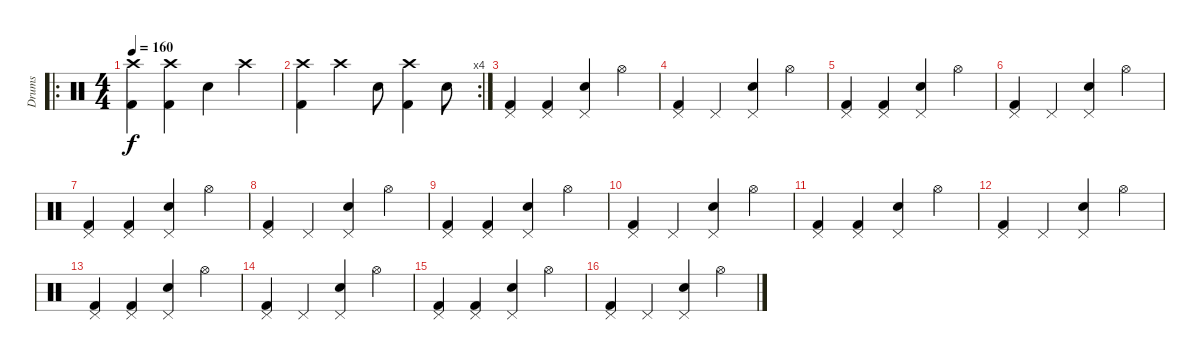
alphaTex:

\track ("Drums" "Drums") {instrument percussion}
\staff {score}
\articulation defaults
\ro
\ts (4 4)
\tempo 160
\clef neutral
\ks c
("Crash high (hit)" "Kick (hit) 2").4{dy f} ("Crash high (hit)" "Kick (hit) 2").4 "Electric Snare (hit)".4 "Crash high (hit)".4 |
\rc 4
("Crash high (hit)" "Kick (hit) 2").4 "Crash high (hit)".4 "Electric Snare (hit)".8 ("Crash high (hit)" "Kick (hit) 2").4 "Electric Snare (hit)".8 |
("Pedal Hi-Hat (hit)" "Kick (hit) 2").4 ("Pedal Hi-Hat (hit)" "Kick (hit) 2").4 ("Pedal Hi-Hat (hit)" "Electric Snare (hit)").4 "Hi-Hat (open)".4 |
("Pedal Hi-Hat (hit)" "Kick (hit) 2").4 "Pedal Hi-Hat (hit)".4 ("Pedal Hi-Hat (hit)" "Electric Snare (hit)").4 "Hi-Hat (open)".4 |
("Pedal Hi-Hat (hit)" "Kick (hit) 2").4 ("Pedal Hi-Hat (hit)" "Kick (hit) 2").4 ("Pedal Hi-Hat (hit)" "Electric Snare (hit)").4 "Hi-Hat (open)".4 |
("Pedal Hi-Hat (hit)" "Kick (hit) 2").4 "Pedal Hi-Hat (hit)".4 ("Pedal Hi-Hat (hit)" "Electric Snare (hit)").4 "Hi-Hat (open)".4 |
("Pedal Hi-Hat (hit)" "Kick (hit) 2").4 ("Pedal Hi-Hat (hit)" "Kick (hit) 2").4 ("Pedal Hi-Hat (hit)" "Electric Snare (hit)").4 "Hi-Hat (open)".4 |
("Pedal Hi-Hat (hit)" "Kick (hit) 2").4 "Pedal Hi-Hat (hit)".4 ("Pedal Hi-Hat (hit)" "Electric Snare (hit)").4 "Hi-Hat (open)".4 |
("Pedal Hi-Hat (hit)" "Kick (hit) 2").4 ("Pedal Hi-Hat (hit)" "Kick (hit) 2").4 ("Pedal Hi-Hat (hit)" "Electric Snare (hit)").4 "Hi-Hat (open)".4 |
("Pedal Hi-Hat (hit)" "Kick (hit) 2").4 "Pedal Hi-Hat (hit)".4 ("Pedal Hi-Hat (hit)" "Electric Snare (hit)").4 "Hi-Hat (open)".4 |
("Pedal Hi-Hat (hit)" "Kick (hit) 2").4 ("Pedal Hi-Hat (hit)" "Kick (hit) 2").4 ("Pedal Hi-Hat (hit)" "Electric Snare (hit)").4 "Hi-Hat (open)".4 |
("Pedal Hi-Hat (hit)" "Kick (hit) 2").4 "Pedal Hi-Hat (hit)".4 ("Pedal Hi-Hat (hit)" "Electric Snare (hit)").4 "Hi-Hat (open)".4 |
("Pedal Hi-Hat (hit)" "Kick (hit) 2").4 ("Pedal Hi-Hat (hit)" "Kick (hit) 2").4 ("Pedal Hi-Hat (hit)" "Electric Snare (hit)").4 "Hi-Hat (open)".4 |
("Pedal Hi-Hat (hit)" "Kick (hit) 2").4 "Pedal Hi-Hat (hit)".4 ("Pedal Hi-Hat (hit)" "Electric Snare (hit)").4 "Hi-Hat (open)".4 |
("Pedal Hi-Hat (hit)" "Kick (hit) 2").4 ("Pedal Hi-Hat (hit)" "Kick (hit) 2").4 ("Pedal Hi-Hat (hit)" "Electric Snare (hit)").4 "Hi-Hat (open)".4 |
("Pedal Hi-Hat (hit)" "Kick (hit) 2").4 "Pedal Hi-Hat (hit)".4 ("Pedal Hi-Hat (hit)" "Electric Snare (hit)").4 "Hi-Hat (open)".4
